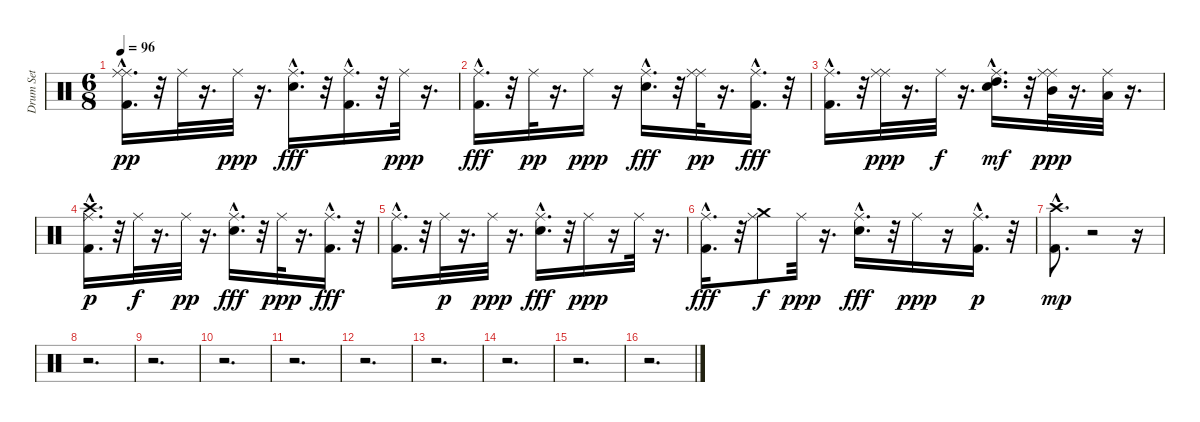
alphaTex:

\track ("Drum Set" "Drum Set") {instrument percussion}
\staff {score}
\articulation defaults
\ts (6 8)
\tempo 96
\clef neutral
\ks c
("Ride (middle)" "Kick (hit) 2"{hac} "Ride (middle)").16{d dy pp} r.32 "Ride (middle)".32 r.16{d} "Ride (middle)".32{dy ppp} r.16{d} ("Ride (middle)" "Snare (hit) 2"{hac}).16{d dy fff} r.32 ("Ride (middle)" "Kick (hit) 2"{hac}).16{d} r.32 "Ride (middle)".32{dy ppp} r.16{d} |
("Ride (middle)" "Kick (hit) 2"{hac}).16{d dy fff} r.32 "Ride (middle)".32{dy pp} r.16{d} "Ride (middle)".16{dy ppp} r.16 ("Ride (middle)" "Snare (hit) 2"{hac}).16{d dy fff} r.32 ("Ride (middle)" "Ride (middle)").32{dy pp} r.16{d} ("Ride (middle)" "Kick (hit) 2"{hac}).16{d dy fff} r.32 |
("Ride (middle)" "Kick (hit) 2"{hac}).16{d} r.32 ("Ride (middle)" "Ride (middle)").32{dy ppp} r.16{d} "Ride (middle)".32{dy f} r.16{d} ("Ride (middle)" "Snare (hit) 2"{hac} "High Tom (hit)").16{d dy mf} r.32 ("Mid Tom (hit)" "Ride (middle)" "Ride (middle)").32{dy ppp} r.16{d} ("Low Tom (hit)" "Ride (middle)").32 r.16{d} |
("Crash high (hit)" "Kick (hit) 2"{hac} "Ride (middle)").16{d dy p} r.32 "Ride (middle)".32{dy f} r.16{d} "Ride (middle)".32{dy pp} r.16{d} ("Ride (middle)" "Snare (hit) 2"{hac}).16{d dy fff} r.32 "Ride (middle)".32{dy ppp} r.16{d} ("Ride (middle)" "Kick (hit) 2"{hac}).16{d dy fff} r.32 |
("Ride (middle)" "Kick (hit) 2"{hac}).16{d} r.32 "Ride (middle)".32{dy p} r.16{d} "Ride (middle)".32{dy ppp} r.16{d} ("Ride (middle)" "Snare (hit) 2"{hac}).16{d dy fff} r.32 "Ride (middle)".16{dy ppp} r.16 "Ride (middle)".32 r.16{d} |
("Ride (middle)" "Kick (hit) 2"{hac}).16{d dy fff} r.32 ("Crash medium (hit)" "Ride (middle)").8{dy f} "Ride (middle)".32{dy ppp} r.16{d} ("Ride (middle)" "Snare (hit) 2"{hac}).16{d dy fff} r.32 "Ride (middle)".16{dy ppp} r.16 ("Kick (hit) 2"{hac} "Ride (middle)").16{d dy p} r.32 |
("Kick (hit) 2"{hac} "Crash high (hit)"{hac}).8{d dy mp} r.2 r.16 |
r.2{d} |
r.2{d} |
r.2{d} |
r.2{d} |
r.2{d} |
r.2{d} |
r.2{d} |
r.2{d} |
r.2{d}
